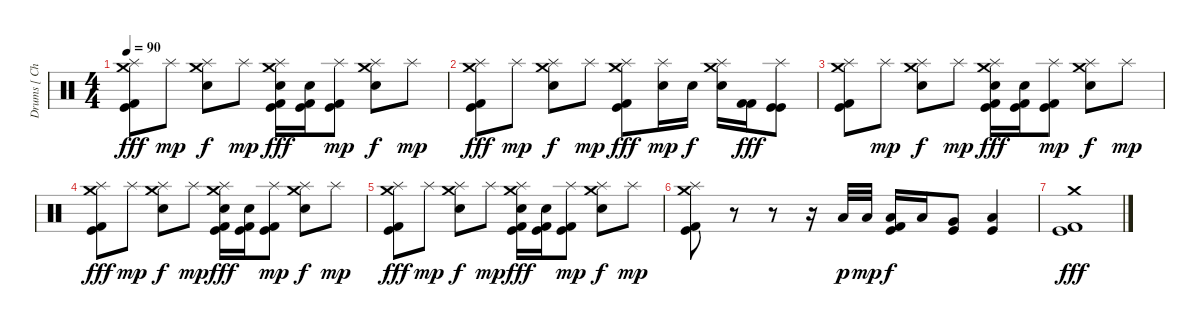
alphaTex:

\track ("Drums [ Christoph Schneider ]" "Drums [ Ch") {instrument percussion}
\staff {score}
\articulation defaults
\ts (4 4)
\tempo 90
\clef neutral
\ks c
("Splash (hit)" "Kick (hit)" "Kick (hit) 2" "Crash medium (hit)").8{dy fff} "Splash (hit)".8{dy mp} ("Splash (hit)" "Snare (hit) 2" "Crash medium (hit)").8{dy f} "Splash (hit)".8{dy mp} ("Splash (hit)" "Kick (hit)" "Kick (hit) 2" "Snare (hit) 2" "Crash medium (hit)").16{dy fff} ("Kick (hit)" "Kick (hit) 2" "Snare (hit) 2").16 ("Splash (hit)" "Kick (hit)" "Kick (hit) 2").8{dy mp} ("Splash (hit)" "Snare (hit) 2" "Crash medium (hit)").8{dy f} "Splash (hit)".8{dy mp} |
("Splash (hit)" "Kick (hit)" "Kick (hit) 2" "Crash medium (hit)").8{dy fff} "Splash (hit)".8{dy mp} ("Splash (hit)" "Snare (hit) 2" "Crash medium (hit)").8{dy f} "Splash (hit)".8{dy mp} ("Splash (hit)" "Kick (hit)" "Kick (hit) 2" "Crash medium (hit)").8{dy fff} ("Splash (hit)" "Snare (hit) 2").16{dy mp} "Snare (hit) 2".16{dy f} ("Splash (hit)" "Electric Snare (hit)" "Crash medium (hit)").16 ("Kick (hit) 2" "Kick (hit) 2").16{dy fff} ("Splash (hit)" "Kick (hit)" "Kick (hit)").8 |
("Splash (hit)" "Kick (hit)" "Kick (hit) 2" "Crash medium (hit)").8 "Splash (hit)".8{dy mp} ("Splash (hit)" "Snare (hit) 2" "Crash medium (hit)").8{dy f} "Splash (hit)".8{dy mp} ("Splash (hit)" "Kick (hit)" "Kick (hit) 2" "Snare (hit) 2" "Crash medium (hit)").16{dy fff} ("Kick (hit)" "Kick (hit) 2" "Snare (hit) 2").16 ("Splash (hit)" "Kick (hit)" "Kick (hit) 2").8{dy mp} ("Splash (hit)" "Snare (hit) 2" "Crash medium (hit)").8{dy f} "Splash (hit)".8{dy mp} |
("Splash (hit)" "Kick (hit)" "Kick (hit) 2" "Crash medium (hit)").8{dy fff} "Splash (hit)".8{dy mp} ("Splash (hit)" "Snare (hit) 2" "Crash medium (hit)").8{dy f} "Splash (hit)".8{dy mp} ("Splash (hit)" "Kick (hit)" "Kick (hit) 2" "Snare (hit) 2" "Crash medium (hit)").16{dy fff} ("Kick (hit)" "Kick (hit) 2" "Snare (hit) 2").16 ("Splash (hit)" "Kick (hit)" "Kick (hit) 2").8{dy mp} ("Splash (hit)" "Snare (hit) 2" "Crash medium (hit)").8{dy f} "Splash (hit)".8{dy mp} |
("Splash (hit)" "Kick (hit)" "Kick (hit) 2" "Crash medium (hit)").8{dy fff} "Splash (hit)".8{dy mp} ("Splash (hit)" "Snare (hit) 2" "Crash medium (hit)").8{dy f} "Splash (hit)".8{dy mp} ("Splash (hit)" "Kick (hit)" "Kick (hit) 2" "Snare (hit) 2" "Crash medium (hit)").16{dy fff} ("Kick (hit)" "Kick (hit) 2" "Snare (hit) 2").16 ("Splash (hit)" "Kick (hit)" "Kick (hit) 2").8{dy mp} ("Splash (hit)" "Snare (hit) 2" "Crash medium (hit)").8{dy f} "Splash (hit)".8{dy mp} |
("Splash (hit)" "Kick (hit)" "Kick (hit) 2" "Crash medium (hit)").8 r.8 r.8 r.16 "Low Tom (hit)".32{dy p} "Low Tom (hit)".32{dy mp} ("Kick (hit)" "Kick (hit) 2" "Low Tom (hit)").16{dy f} "Low Tom (hit)".16 ("Kick (hit)" "Very Low Tom (hit)").8 ("Kick (hit)" "Low Floor Tom (hit)").4 |
("Kick (hit) 2" "Kick (hit)" "Crash medium (hit)").1{dy fff}
